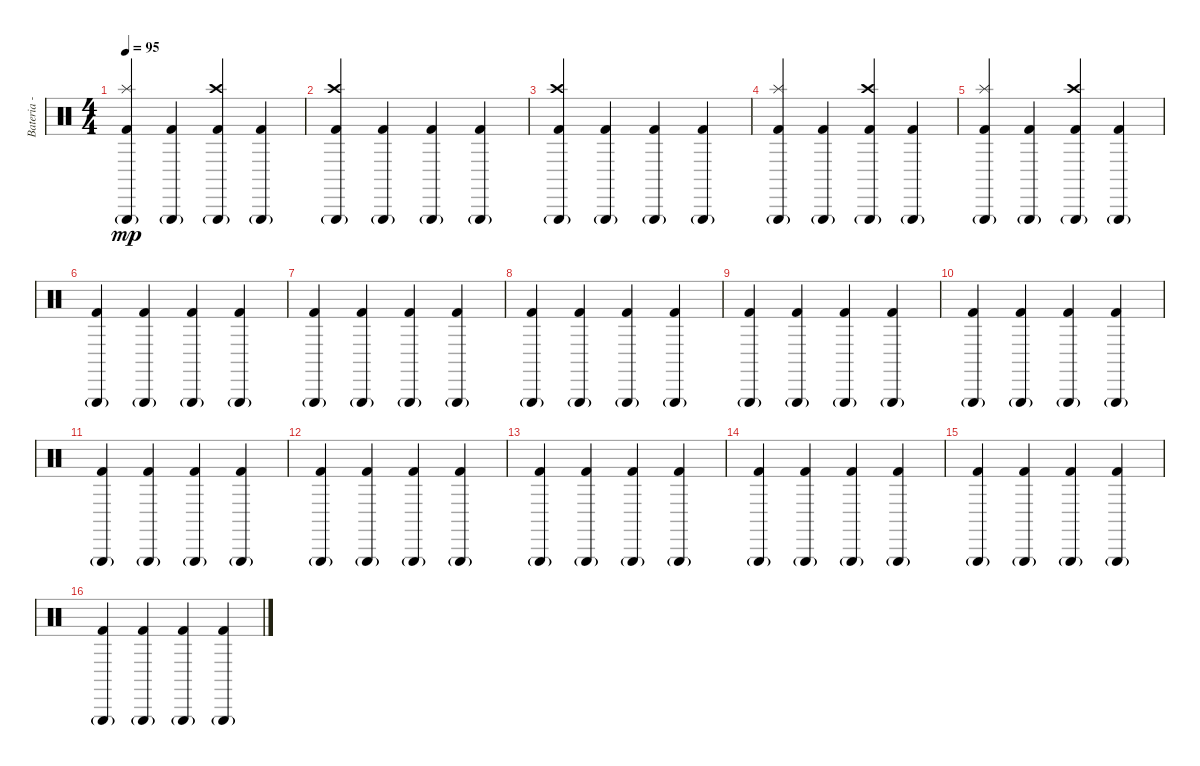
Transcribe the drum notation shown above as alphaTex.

\track ("Bateria - Alfonso André" "Bateria - ") {instrument percussion}
\staff {score}
\articulation defaults
\ts (4 4)
\tempo 95
\clef neutral
\ks c
("Triangle (hit)"{g} "Kick (hit) 2" "Splash (hit)").4{dy mp} ("Triangle (hit)"{g} "Kick (hit) 2").4 ("Triangle (hit)"{g} "Kick (hit) 2" "Crash high (hit)").4 ("Triangle (hit)"{g} "Kick (hit) 2").4 |
("Triangle (hit)"{g} "Kick (hit) 2" "Crash high (hit)").4 ("Triangle (hit)"{g} "Kick (hit) 2").4 ("Triangle (hit)"{g} "Kick (hit) 2").4 ("Triangle (hit)"{g} "Kick (hit) 2").4 |
("Triangle (hit)"{g} "Kick (hit) 2" "Crash high (hit)").4 ("Triangle (hit)"{g} "Kick (hit) 2").4 ("Triangle (hit)"{g} "Kick (hit) 2").4 ("Triangle (hit)"{g} "Kick (hit) 2").4 |
("Triangle (hit)"{g} "Kick (hit) 2" "Splash (hit)").4 ("Triangle (hit)"{g} "Kick (hit) 2").4 ("Triangle (hit)"{g} "Kick (hit) 2" "Crash high (hit)").4 ("Triangle (hit)"{g} "Kick (hit) 2").4 |
("Triangle (hit)"{g} "Kick (hit) 2" "Splash (hit)").4 ("Triangle (hit)"{g} "Kick (hit) 2").4 ("Triangle (hit)"{g} "Kick (hit) 2" "Crash high (hit)").4 ("Triangle (hit)"{g} "Kick (hit) 2").4 |
("Triangle (hit)"{g} "Kick (hit) 2").4 ("Triangle (hit)"{g} "Kick (hit) 2").4 ("Triangle (hit)"{g} "Kick (hit) 2").4 ("Triangle (hit)"{g} "Kick (hit) 2").4 |
("Triangle (hit)"{g} "Kick (hit) 2").4 ("Triangle (hit)"{g} "Kick (hit) 2").4 ("Triangle (hit)"{g} "Kick (hit) 2").4 ("Triangle (hit)"{g} "Kick (hit) 2").4 |
("Triangle (hit)"{g} "Kick (hit) 2").4 ("Triangle (hit)"{g} "Kick (hit) 2").4 ("Triangle (hit)"{g} "Kick (hit) 2").4 ("Triangle (hit)"{g} "Kick (hit) 2").4 |
("Triangle (hit)"{g} "Kick (hit) 2").4 ("Triangle (hit)"{g} "Kick (hit) 2").4 ("Triangle (hit)"{g} "Kick (hit) 2").4 ("Triangle (hit)"{g} "Kick (hit) 2").4 |
("Triangle (hit)"{g} "Kick (hit) 2").4 ("Triangle (hit)"{g} "Kick (hit) 2").4 ("Triangle (hit)"{g} "Kick (hit) 2").4 ("Triangle (hit)"{g} "Kick (hit) 2").4 |
("Triangle (hit)"{g} "Kick (hit) 2").4 ("Triangle (hit)"{g} "Kick (hit) 2").4 ("Triangle (hit)"{g} "Kick (hit) 2").4 ("Triangle (hit)"{g} "Kick (hit) 2").4 |
("Triangle (hit)"{g} "Kick (hit) 2").4 ("Triangle (hit)"{g} "Kick (hit) 2").4 ("Triangle (hit)"{g} "Kick (hit) 2").4 ("Triangle (hit)"{g} "Kick (hit) 2").4 |
("Triangle (hit)"{g} "Kick (hit) 2").4 ("Triangle (hit)"{g} "Kick (hit) 2").4 ("Triangle (hit)"{g} "Kick (hit) 2").4 ("Triangle (hit)"{g} "Kick (hit) 2").4 |
("Triangle (hit)"{g} "Kick (hit) 2").4 ("Triangle (hit)"{g} "Kick (hit) 2").4 ("Triangle (hit)"{g} "Kick (hit) 2").4 ("Triangle (hit)"{g} "Kick (hit) 2").4 |
("Triangle (hit)"{g} "Kick (hit) 2").4 ("Triangle (hit)"{g} "Kick (hit) 2").4 ("Triangle (hit)"{g} "Kick (hit) 2").4 ("Triangle (hit)"{g} "Kick (hit) 2").4 |
("Triangle (hit)"{g} "Kick (hit) 2").4 ("Triangle (hit)"{g} "Kick (hit) 2").4 ("Triangle (hit)"{g} "Kick (hit) 2").4 ("Triangle (hit)"{g} "Kick (hit) 2").4
